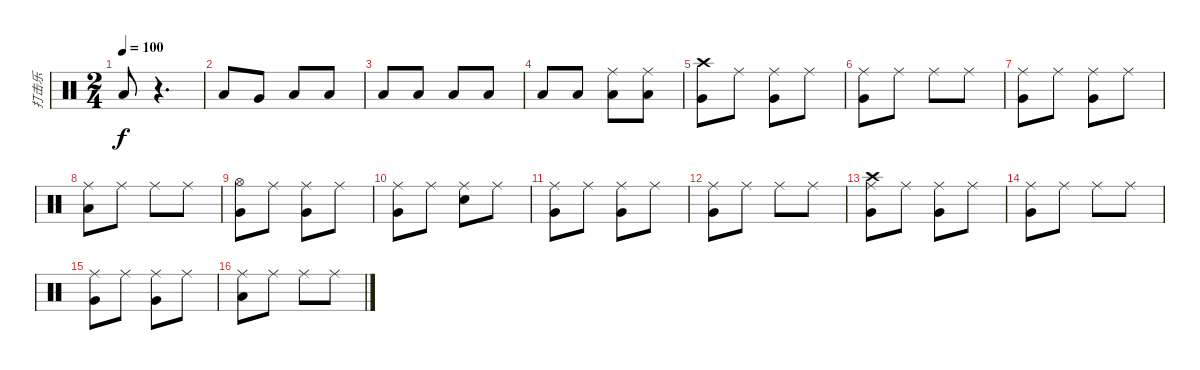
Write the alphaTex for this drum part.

\track ("打击乐" "打击乐") {instrument percussion}
\staff {score}
\articulation defaults
\ts (2 4)
\tempo 100
\clef neutral
\ks c "Low Floor Tom (hit)".8{dy f}
r.4{d} |
"Low Floor Tom (hit)".8 "Very Low Tom (hit)".8 "Low Floor Tom (hit)".8 "Low Tom (hit)".8 |
"Low Floor Tom (hit)".8 "Low Floor Tom (hit)".8 "Low Floor Tom (hit)".8 "Low Floor Tom (hit)".8 |
"Low Floor Tom (hit)".8 "Low Floor Tom (hit)".8 ("Ride (middle)" "Low Floor Tom (hit)").8 ("Ride (middle)" "Low Floor Tom (hit)").8 |
("Crash high (hit)" "Very Low Tom (hit)").8 "Ride (middle)".8 ("Ride (middle)" "Very Low Tom (hit)").8 "Ride (middle)".8 |
("Ride (middle)" "Very Low Tom (hit)").8 "Ride (middle)".8 "Ride (middle)".8 "Ride (middle)".8 |
("Ride (middle)" "Very Low Tom (hit)").8 "Ride (middle)".8 ("Ride (middle)" "Very Low Tom (hit)").8 "Ride (middle)".8 |
("Ride (middle)" "Low Floor Tom (hit)").8 "Ride (middle)".8 "Ride (middle)".8 "Ride (middle)".8 |
("Hi-Hat (open)" "Very Low Tom (hit)").8 "Ride (middle)".8 ("Ride (middle)" "Very Low Tom (hit)").8 "Ride (middle)".8 |
("Ride (middle)" "Very Low Tom (hit)").8 "Ride (middle)".8 ("Ride (middle)" "Electric Snare (hit)").8 "Ride (middle)".8 |
("Ride (middle)" "Very Low Tom (hit)").8 "Ride (middle)".8 ("Ride (middle)" "Very Low Tom (hit)").8 "Ride (middle)".8 |
("Ride (middle)" "Very Low Tom (hit)").8 "Ride (middle)".8 "Ride (middle)".8 "Ride (middle)".8 |
("Ride (middle)" "Crash high (hit)" "Very Low Tom (hit)").8 "Ride (middle)".8 ("Ride (middle)" "Very Low Tom (hit)").8 "Ride (middle)".8 |
("Ride (middle)" "Very Low Tom (hit)").8 "Ride (middle)".8 "Ride (middle)".8 "Ride (middle)".8 |
("Ride (middle)" "Very Low Tom (hit)").8 "Ride (middle)".8 ("Ride (middle)" "Very Low Tom (hit)").8 "Ride (middle)".8 |
("Ride (middle)" "Low Floor Tom (hit)").8 "Ride (middle)".8 "Ride (middle)".8 "Ride (middle)".8
